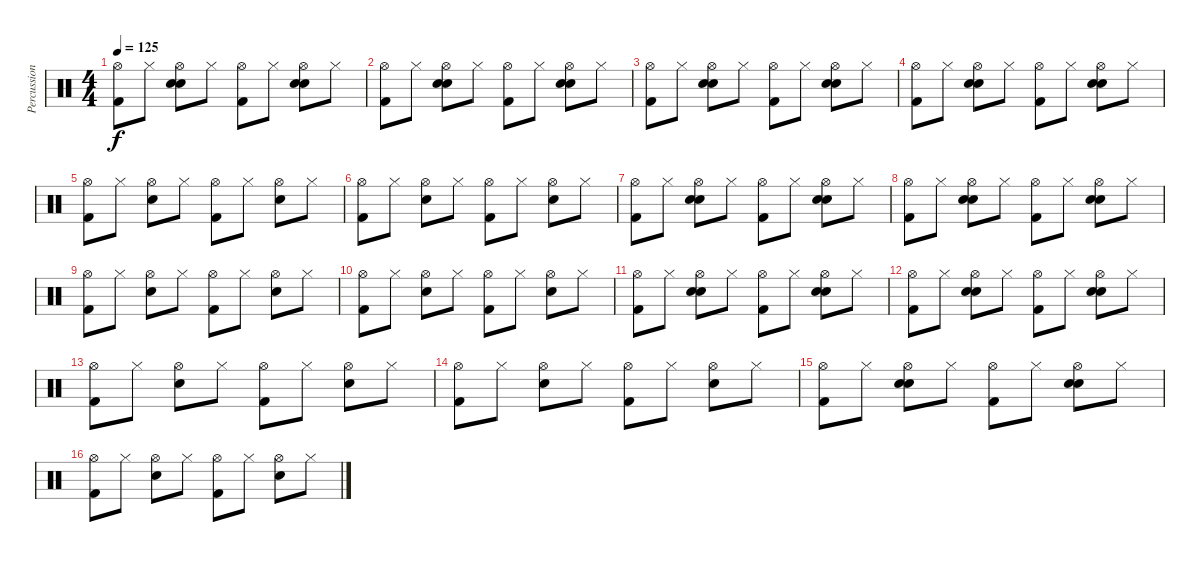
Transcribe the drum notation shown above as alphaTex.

\track ("Percussions" "Percussion") {instrument percussion}
\staff {score}
\articulation defaults
\ts (4 4)
\tempo 125
\clef neutral
\ks c
("Hi-Hat (open)" "Kick (hit) 2").8{dy f} "Hi-Hat (closed)".8 ("Hi-Hat (open)" "Electric Snare (hit)" "Snare (hit) 2").8 "Hi-Hat (closed)".8 ("Hi-Hat (open)" "Kick (hit) 2").8 "Hi-Hat (closed)".8 ("Hi-Hat (open)" "Electric Snare (hit)" "Snare (hit) 2").8 "Hi-Hat (closed)".8 |
("Hi-Hat (open)" "Kick (hit) 2").8 "Hi-Hat (closed)".8 ("Hi-Hat (open)" "Electric Snare (hit)" "Snare (hit) 2").8 "Hi-Hat (closed)".8 ("Hi-Hat (open)" "Kick (hit) 2").8 "Hi-Hat (closed)".8 ("Hi-Hat (open)" "Electric Snare (hit)" "Snare (hit) 2").8 "Hi-Hat (closed)".8 |
("Hi-Hat (open)" "Kick (hit) 2").8 "Hi-Hat (closed)".8 ("Hi-Hat (open)" "Electric Snare (hit)" "Snare (hit) 2").8 "Hi-Hat (closed)".8 ("Hi-Hat (open)" "Kick (hit) 2").8 "Hi-Hat (closed)".8 ("Hi-Hat (open)" "Electric Snare (hit)" "Snare (hit) 2").8 "Hi-Hat (closed)".8 |
("Hi-Hat (open)" "Kick (hit) 2").8 "Hi-Hat (closed)".8 ("Hi-Hat (open)" "Electric Snare (hit)" "Snare (hit) 2").8 "Hi-Hat (closed)".8 ("Hi-Hat (open)" "Kick (hit) 2").8 "Hi-Hat (closed)".8 ("Hi-Hat (open)" "Electric Snare (hit)" "Snare (hit) 2").8 "Hi-Hat (closed)".8 |
("Hi-Hat (open)" "Kick (hit) 2").8 "Hi-Hat (closed)".8 ("Hi-Hat (open)" "Snare (hit) 2").8 "Hi-Hat (closed)".8 ("Hi-Hat (open)" "Kick (hit) 2").8 "Hi-Hat (closed)".8 ("Hi-Hat (open)" "Snare (hit) 2").8 "Hi-Hat (closed)".8 |
("Hi-Hat (open)" "Kick (hit) 2").8 "Hi-Hat (closed)".8 ("Hi-Hat (open)" "Snare (hit) 2").8 "Hi-Hat (closed)".8 ("Hi-Hat (open)" "Kick (hit) 2").8 "Hi-Hat (closed)".8 ("Hi-Hat (open)" "Snare (hit) 2").8 "Hi-Hat (closed)".8 |
("Hi-Hat (open)" "Kick (hit) 2").8 "Hi-Hat (closed)".8 ("Hi-Hat (open)" "Electric Snare (hit)" "Snare (hit) 2").8 "Hi-Hat (closed)".8 ("Hi-Hat (open)" "Kick (hit) 2").8 "Hi-Hat (closed)".8 ("Hi-Hat (open)" "Electric Snare (hit)" "Snare (hit) 2").8 "Hi-Hat (closed)".8 |
("Hi-Hat (open)" "Kick (hit) 2").8 "Hi-Hat (closed)".8 ("Hi-Hat (open)" "Electric Snare (hit)" "Snare (hit) 2").8 "Hi-Hat (closed)".8 ("Hi-Hat (open)" "Kick (hit) 2").8 "Hi-Hat (closed)".8 ("Hi-Hat (open)" "Electric Snare (hit)" "Snare (hit) 2").8 "Hi-Hat (closed)".8 |
("Hi-Hat (open)" "Kick (hit) 2").8 "Hi-Hat (closed)".8 ("Hi-Hat (open)" "Snare (hit) 2").8 "Hi-Hat (closed)".8 ("Hi-Hat (open)" "Kick (hit) 2").8 "Hi-Hat (closed)".8 ("Hi-Hat (open)" "Snare (hit) 2").8 "Hi-Hat (closed)".8 |
("Hi-Hat (open)" "Kick (hit) 2").8 "Hi-Hat (closed)".8 ("Hi-Hat (open)" "Snare (hit) 2").8 "Hi-Hat (closed)".8 ("Hi-Hat (open)" "Kick (hit) 2").8 "Hi-Hat (closed)".8 ("Hi-Hat (open)" "Snare (hit) 2").8 "Hi-Hat (closed)".8 |
("Hi-Hat (open)" "Kick (hit) 2").8 "Hi-Hat (closed)".8 ("Hi-Hat (open)" "Electric Snare (hit)" "Snare (hit) 2").8 "Hi-Hat (closed)".8 ("Hi-Hat (open)" "Kick (hit) 2").8 "Hi-Hat (closed)".8 ("Hi-Hat (open)" "Electric Snare (hit)" "Snare (hit) 2").8 "Hi-Hat (closed)".8 |
("Hi-Hat (open)" "Kick (hit) 2").8 "Hi-Hat (closed)".8 ("Hi-Hat (open)" "Electric Snare (hit)" "Snare (hit) 2").8 "Hi-Hat (closed)".8 ("Hi-Hat (open)" "Kick (hit) 2").8 "Hi-Hat (closed)".8 ("Hi-Hat (open)" "Electric Snare (hit)" "Snare (hit) 2").8 "Hi-Hat (closed)".8 |
("Hi-Hat (open)" "Kick (hit) 2").8 "Hi-Hat (closed)".8 ("Hi-Hat (open)" "Snare (hit) 2").8 "Hi-Hat (closed)".8 ("Hi-Hat (open)" "Kick (hit) 2").8 "Hi-Hat (closed)".8 ("Hi-Hat (open)" "Snare (hit) 2").8 "Hi-Hat (closed)".8 |
("Hi-Hat (open)" "Kick (hit) 2").8 "Hi-Hat (closed)".8 ("Hi-Hat (open)" "Snare (hit) 2").8 "Hi-Hat (closed)".8 ("Hi-Hat (open)" "Kick (hit) 2").8 "Hi-Hat (closed)".8 ("Hi-Hat (open)" "Snare (hit) 2").8 "Hi-Hat (closed)".8 |
("Hi-Hat (open)" "Kick (hit) 2").8 "Hi-Hat (closed)".8 ("Hi-Hat (open)" "Electric Snare (hit)" "Snare (hit) 2").8 "Hi-Hat (closed)".8 ("Hi-Hat (open)" "Kick (hit) 2").8 "Hi-Hat (closed)".8 ("Hi-Hat (open)" "Electric Snare (hit)" "Snare (hit) 2").8 "Hi-Hat (closed)".8 |
("Hi-Hat (open)" "Kick (hit) 2").8 "Hi-Hat (closed)".8 ("Hi-Hat (open)" "Snare (hit) 2").8 "Hi-Hat (closed)".8 ("Hi-Hat (open)" "Kick (hit) 2").8 "Hi-Hat (closed)".8 ("Hi-Hat (open)" "Snare (hit) 2").8 "Hi-Hat (closed)".8
